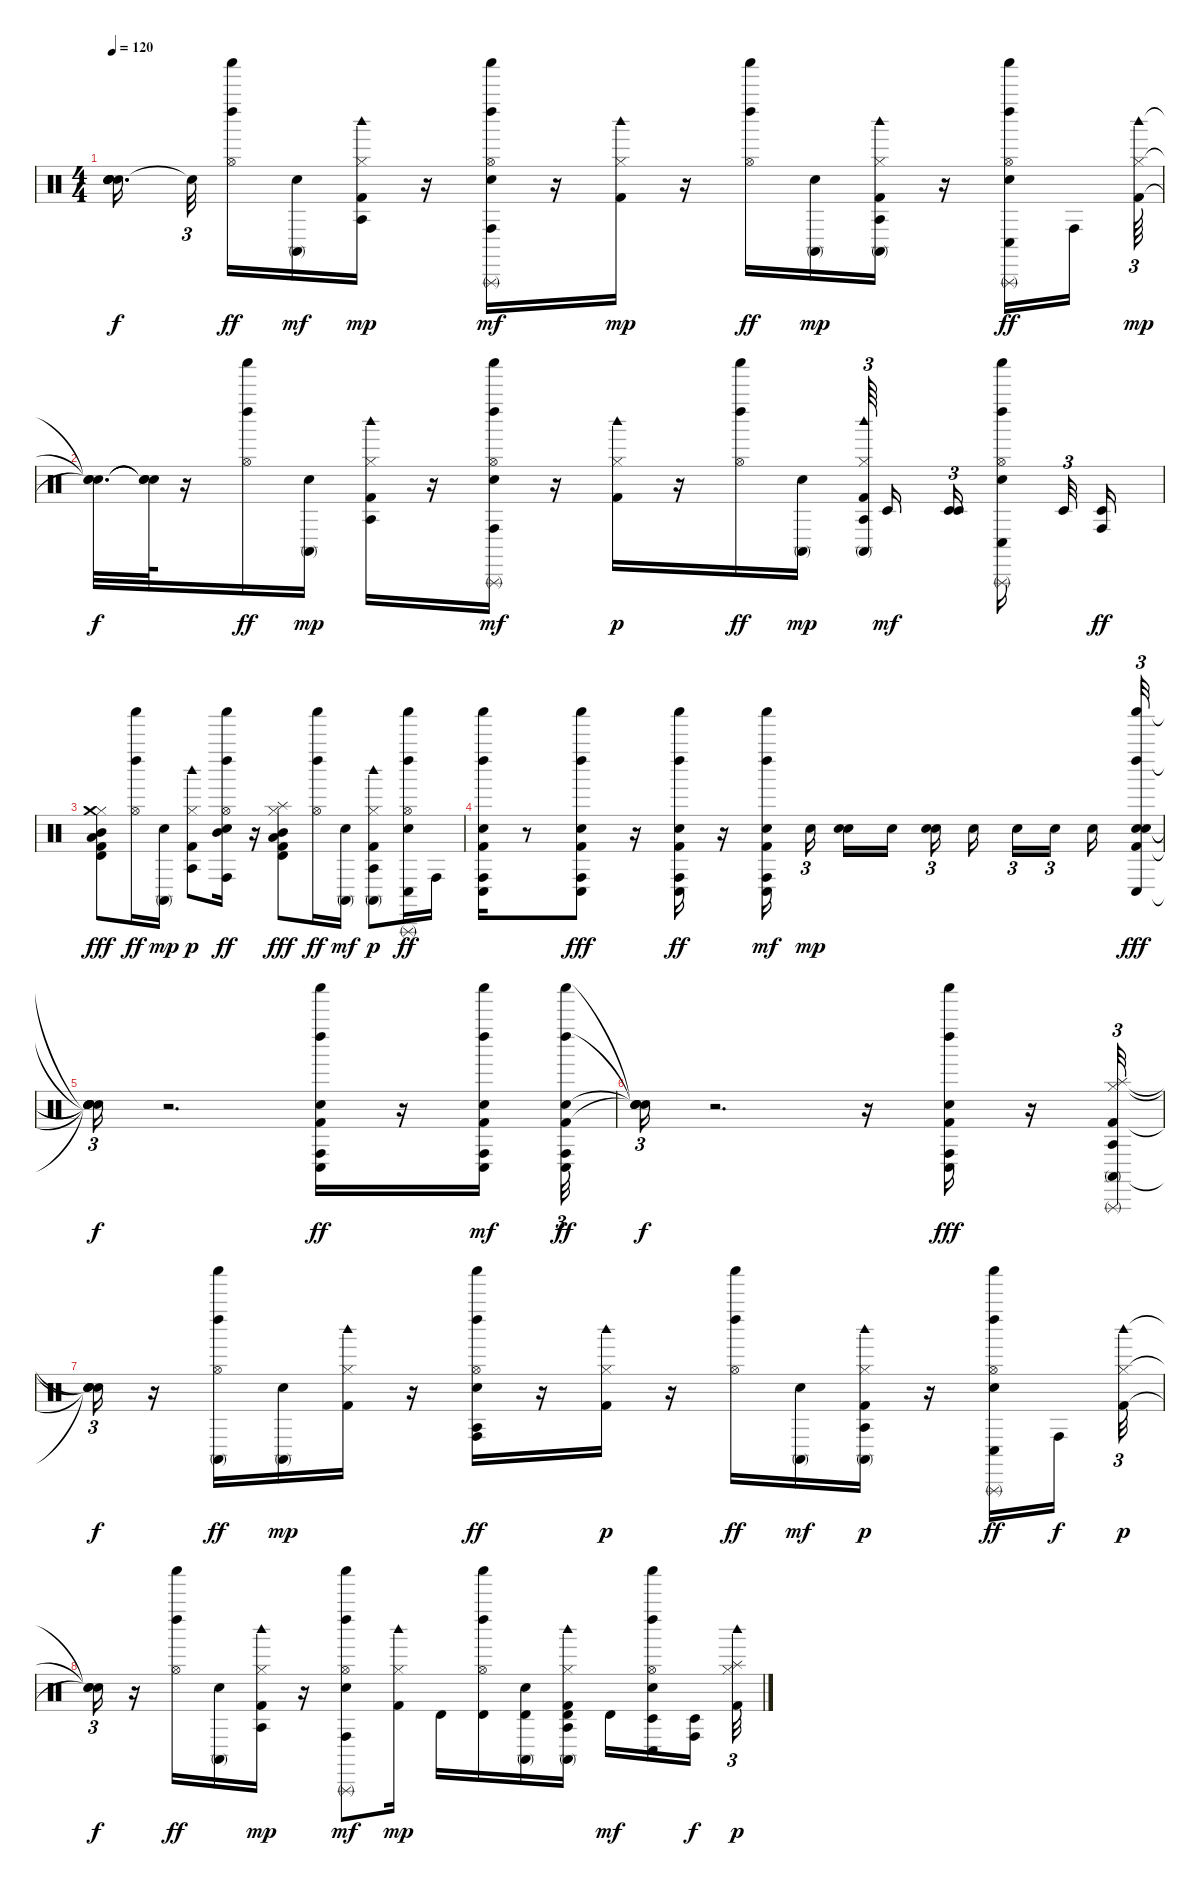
\track "" {instrument percussion}
\staff {score}
\articulation defaults
\ts (4 4)
\tempo 120
\clef neutral
\ks c
("Snare (hit)"{t} "Snare (hit)"{t} "Snare (hit)"{t} "Snare (hit)"{t} "Snare (hit)"{t}).16{d dy f beam splitsecondary} "Snare (hit)"{t}.32{tu (3 2) beam splitsecondary} ("Shaker (hit)" "Left Maraca (hit)" "Hi-Hat (open)").16{dy ff} ("Electric Snare (hit)" "Conga high (mute)").16{dy mf} ("Kick (hit) 2" "Hi-Hat (closed)" "Agogo tow (hit)" "Woodblock high (hit)").16{dy mp} r.16 ("Shaker (hit)" "Left Maraca (hit)" "Electric Snare (hit)" "Conga high (hit)" "Hi-Hat (open)" "Triangle (rnute)").16{dy mf} r.16 ("Kick (hit) 2" "Hi-Hat (closed)" "Woodblock high (hit)").16{dy mp} r.16 ("Shaker (hit)" "Left Maraca (hit)" "Hi-Hat (open)").16{dy ff} ("Electric Snare (hit)" "Conga high (mute)").16{dy mp} ("Kick (hit) 2" "Conga high (mute)" "Hi-Hat (closed)" "Agogo tow (hit)" "Woodblock high (hit)").16 r.16 ("Shaker (hit)" "Left Maraca (hit)" "Electric Snare (hit)" "Conga low (hit)" "Hi-Hat (open)" "Triangle (rnute)").16{dy ff} "Conga high (hit)".16{beam splitsecondary} ("Kick (hit) 2" "Hi-Hat (closed)" "Woodblock high (hit)").64{tu (3 2) dy mp} |
("Snare (hit)"{t} "Snare (hit)"{t} "Snare (hit)"{t}).32{d dy f} ("Snare (hit)"{t} "Snare (hit)"{t} "Snare (hit)"{t}).64 r.16 ("Shaker (hit)" "Left Maraca (hit)" "Hi-Hat (open)").16{dy ff} ("Electric Snare (hit)" "Conga high (mute)").16{dy mp} ("Kick (hit) 2" "Hi-Hat (closed)" "Agogo tow (hit)" "Woodblock high (hit)").16 r.16 ("Shaker (hit)" "Left Maraca (hit)" "Electric Snare (hit)" "Conga high (hit)" "Hi-Hat (open)" "Triangle (rnute)").16{dy mf} r.16 ("Kick (hit) 2" "Hi-Hat (closed)" "Woodblock high (hit)").16{dy p} r.16 ("Shaker (hit)" "Left Maraca (hit)" "Hi-Hat (open)").16{dy ff} ("Electric Snare (hit)" "Conga high (mute)").16{dy mp} ("Kick (hit) 2" "Conga high (mute)" "Hi-Hat (closed)" "Agogo tow (hit)" "Woodblock high (hit)").64{tu (3 2) beam splitsecondary} "Timbale low (hit)".16{dy mf beam splitsecondary} ("Timbale low (hit)" "Timbale low (hit)").16{tu (3 2) beam splitsecondary} ("Shaker (hit)" "Left Maraca (hit)" "Electric Snare (hit)" "Conga low (hit)" "Hi-Hat (open)" "Triangle (rnute)").16{beam splitsecondary} "Timbale low (hit)".32{tu (3 2)} ("Conga high (hit)" "Timbale low (hit)").16{dy ff} |
("Kick (hit) 2" "Hi-Hat (closed)" "Mid Tom (hit)" "Low Tom (hit)" "Timbale high (hit)" "Crash medium (hit)").8{dy fff} ("Shaker (hit)" "Left Maraca (hit)" "Hi-Hat (open)").16{dy ff} ("Electric Snare (hit)" "Conga high (mute)").16{dy mp} ("Kick (hit) 2" "Hi-Hat (closed)" "Agogo tow (hit)" "Woodblock high (hit)").8{dy p} ("Shaker (hit)" "Left Maraca (hit)" "Electric Snare (hit)" "Conga high (hit)" "Hi-Hat (open)" "Mid Tom (hit)").16{dy ff} r.16 ("Kick (hit) 2" "Hi-Hat (closed)" "Mid Tom (hit)" "Low Tom (hit)" "Timbale high (hit)" "Splash (hit)").8{dy fff} ("Shaker (hit)" "Left Maraca (hit)" "Hi-Hat (open)").16{dy ff} ("Electric Snare (hit)" "Conga high (mute)").16{dy mf} ("Kick (hit) 2" "Conga high (mute)" "Hi-Hat (closed)" "Agogo tow (hit)" "Woodblock high (hit)").8{dy p} ("Shaker (hit)" "Left Maraca (hit)" "Electric Snare (hit)" "Conga low (hit)" "Hi-Hat (open)" "Triangle (rnute)").16{dy ff} "Conga high (hit)".16 |
("Kick (hit) 2" "Shaker (hit)" "Left Maraca (hit)" "Electric Snare (hit)" "Conga low (hit)" "Conga high (hit)").16 r.8 ("Kick (hit) 2" "Shaker (hit)" "Left Maraca (hit)" "Electric Snare (hit)" "Conga low (hit)" "Conga high (hit)").8{dy fff} r.16 ("Kick (hit) 2" "Shaker (hit)" "Left Maraca (hit)" "Electric Snare (hit)" "Conga low (hit)" "Conga high (hit)").16{dy ff} r.16 ("Kick (hit) 2" "Shaker (hit)" "Left Maraca (hit)" "Electric Snare (hit)" "Conga high (hit)" "Conga low (hit)").16{dy mf beam splitsecondary} "Snare (hit) 2".16{tu (3 2) dy mp beam splitsecondary} ("Snare (hit) 2" "Snare (hit) 2").16 "Snare (hit) 2".16{beam splitsecondary} ("Snare (hit) 2" "Snare (hit) 2").16{tu (3 2)} "Snare (hit) 2".16{beam splitsecondary} "Snare (hit) 2".16{tu (3 2)} "Snare (hit) 2".16{tu (3 2) beam splitsecondary} "Snare (hit) 2".16 ("Snare (hit) 2" "Kick (hit) 2" "Shaker (hit)" "Left Maraca (hit)" "Electric Snare (hit)" "Conga low (hit)").32{tu (3 2) dy fff} |
("Snare (hit)"{t} "Snare (hit)"{t} "Snare (hit)"{t} "Snare (hit)"{t} "Snare (hit)"{t} "Snare (hit)"{t}).16{tu (3 2) dy f} r.2{d} ("Kick (hit) 2" "Shaker (hit)" "Left Maraca (hit)" "Electric Snare (hit)" "Conga low (hit)" "Conga high (hit)").16{dy ff} r.16 ("Kick (hit) 2" "Shaker (hit)" "Left Maraca (hit)" "Electric Snare (hit)" "Conga low (hit)" "Conga high (hit)").16{dy mf} ("Kick (hit) 2" "Shaker (hit)" "Left Maraca (hit)" "Electric Snare (hit)" "Conga low (hit)" "Conga high (hit)").32{tu (3 2) dy ff} |
("Snare (hit)"{t} "Snare (hit)"{t} "Snare (hit)"{t} "Snare (hit)"{t}).16{tu (3 2) dy f} r.2{d} r.16 ("Kick (hit) 2" "Shaker (hit)" "Left Maraca (hit)" "Electric Snare (hit)" "Conga low (hit)" "Conga high (hit)").16{dy fff} r.16 ("Kick (hit) 2" "Conga high (mute)" "Hi-Hat (closed)" "Splash (hit)" "Triangle (rnute)" "Agogo tow (hit)").32{tu (3 2)} |
("Snare (hit)"{t} "Snare (hit)"{t} "Snare (hit)"{t} "Snare (hit)"{t}).16{tu (3 2) dy f} r.16 ("Shaker (hit)" "Left Maraca (hit)" "Conga high (mute)" "Hi-Hat (open)").16{dy ff} ("Electric Snare (hit)" "Conga high (mute)").16{dy mp} ("Kick (hit) 2" "Hi-Hat (closed)" "Woodblock high (hit)").16 r.16 ("Shaker (hit)" "Left Maraca (hit)" "Electric Snare (hit)" "Conga high (hit)" "Hi-Hat (open)" "Agogo tow (hit)").16{dy ff} r.16 ("Kick (hit) 2" "Hi-Hat (closed)" "Woodblock high (hit)").16{dy p} r.16 ("Shaker (hit)" "Left Maraca (hit)" "Hi-Hat (open)").16{dy ff} ("Electric Snare (hit)" "Conga high (mute)").16{dy mf} ("Kick (hit) 2" "Conga high (mute)" "Hi-Hat (closed)" "Agogo tow (hit)" "Woodblock high (hit)").16{dy p} r.16 ("Shaker (hit)" "Left Maraca (hit)" "Electric Snare (hit)" "Conga low (hit)" "Hi-Hat (open)" "Triangle (rnute)").16{dy ff} "Conga high (hit)".16{dy f beam splitsecondary} ("Kick (hit) 2" "Hi-Hat (closed)" "Woodblock high (hit)").32{tu (3 2) dy p} |
("Snare (hit)"{t} "Snare (hit)"{t} "Snare (hit)"{t}).16{tu (3 2) dy f} r.16 ("Shaker (hit)" "Left Maraca (hit)" "Hi-Hat (open)").16{dy ff} ("Electric Snare (hit)" "Conga high (mute)").16 ("Kick (hit) 2" "Hi-Hat (closed)" "Agogo tow (hit)" "Woodblock high (hit)").16{dy mp} r.16 ("Shaker (hit)" "Left Maraca (hit)" "Electric Snare (hit)" "Conga high (hit)" "Hi-Hat (open)" "Triangle (rnute)").8{dy mf} ("Kick (hit) 2" "Hi-Hat (closed)" "Woodblock high (hit)").16{dy mp} "Timbale high (hit)".16 ("Shaker (hit)" "Left Maraca (hit)" "Hi-Hat (open)" "Timbale high (hit)").16 ("Electric Snare (hit)" "Conga high (mute)" "Timbale high (hit)").16 ("Kick (hit) 2" "Conga high (mute)" "Hi-Hat (closed)" "Timbale high (hit)" "Agogo tow (hit)" "Woodblock high (hit)").16 "Timbale high (hit)".16{dy mf} ("Shaker (hit)" "Left Maraca (hit)" "Electric Snare (hit)" "Conga low (hit)" "Hi-Hat (open)" "Timbale low (hit)").16 ("Conga high (hit)" "Timbale low (hit)").16{dy f beam splitsecondary} ("Kick (hit) 2" "Hi-Hat (closed)" "Splash (hit)" "Woodblock high (hit)").32{tu (3 2) dy p}
